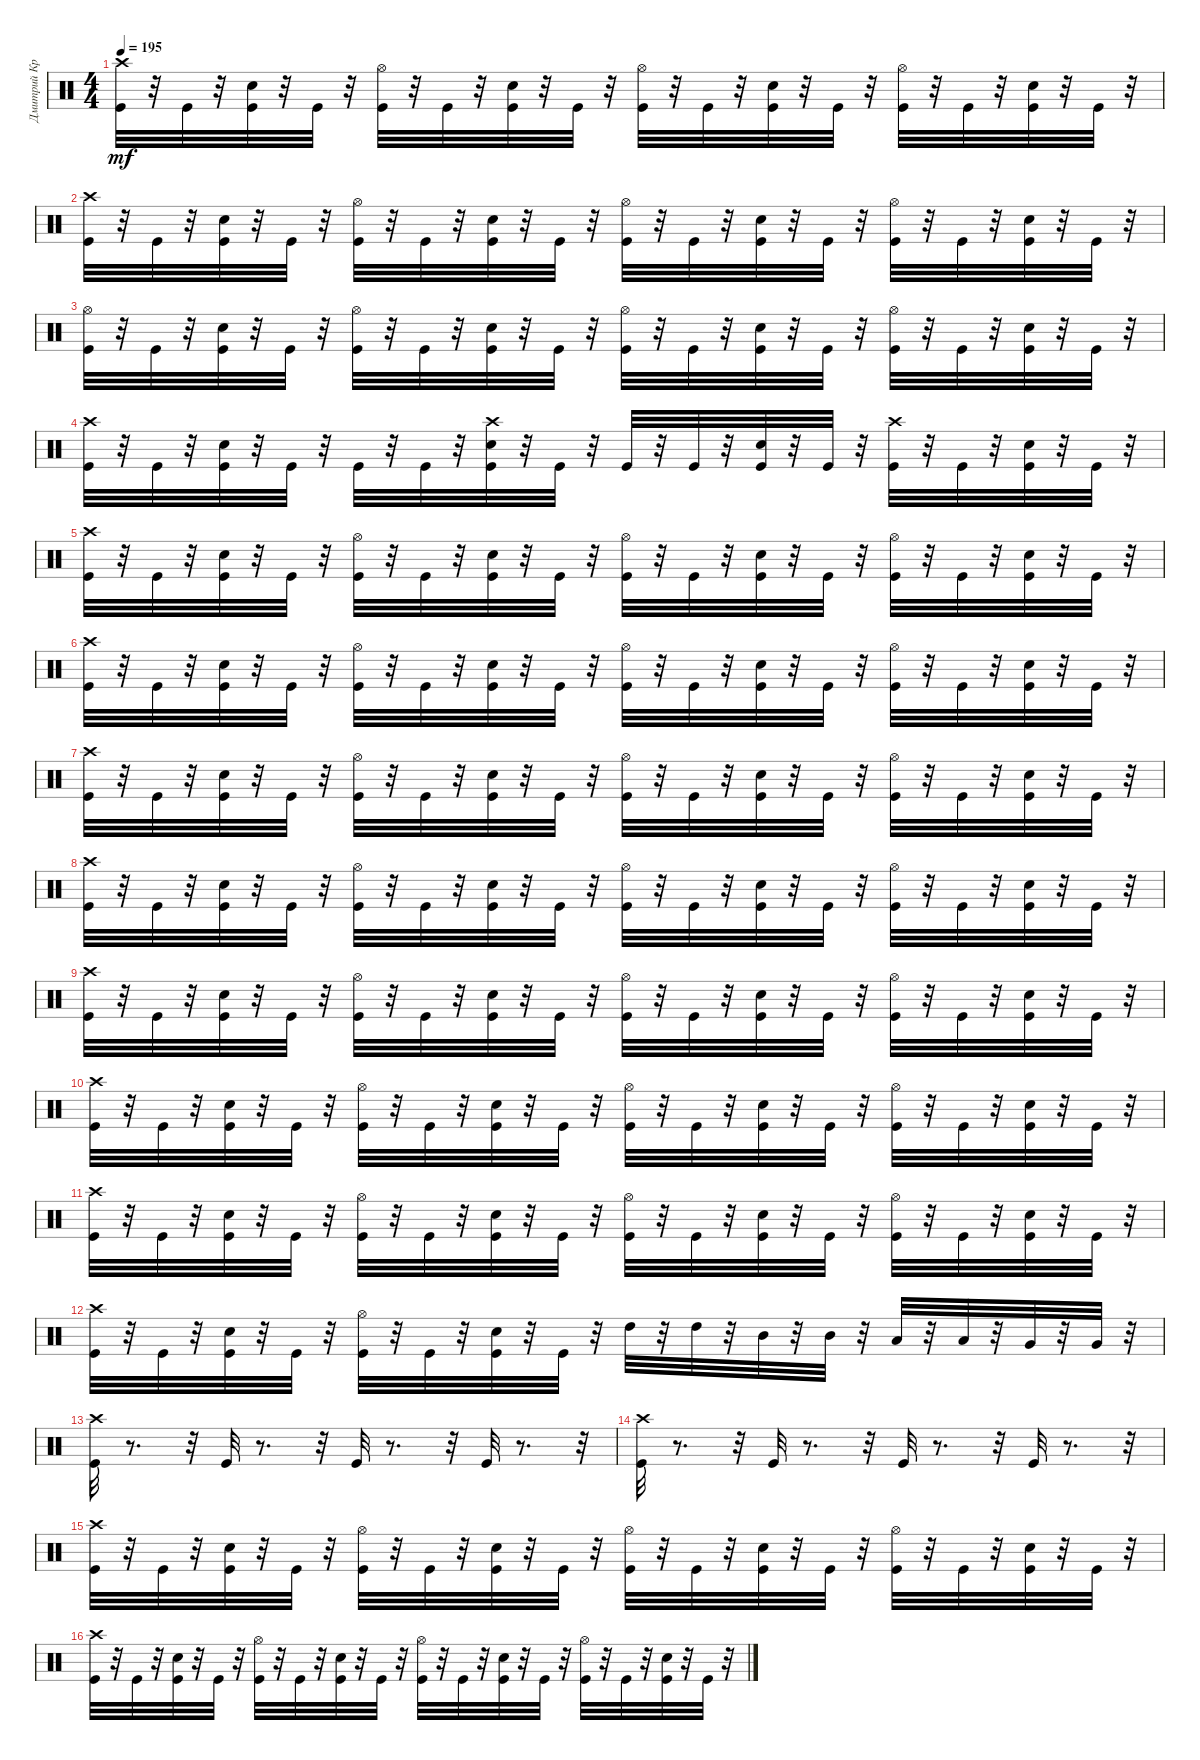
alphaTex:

\track ("Дмитрий Кривенков" "Дмитрий Кр") {instrument percussion}
\staff {score}
\articulation defaults
\ts (4 4)
\tempo 195
\clef neutral
\ks c
("Crash high (hit)" "Kick (hit)").32{dy mf} r.32 "Kick (hit)".32 r.32 ("Electric Snare (hit)" "Kick (hit)").32 r.32 "Kick (hit)".32 r.32 ("Kick (hit)" "Hi-Hat (open)").32 r.32 "Kick (hit)".32 r.32 ("Electric Snare (hit)" "Kick (hit)").32 r.32 "Kick (hit)".32 r.32 ("Hi-Hat (open)" "Kick (hit)").32 r.32 "Kick (hit)".32 r.32 ("Electric Snare (hit)" "Kick (hit)").32 r.32 "Kick (hit)".32 r.32 ("Hi-Hat (open)" "Kick (hit)").32 r.32 "Kick (hit)".32 r.32 ("Electric Snare (hit)" "Kick (hit)").32 r.32 "Kick (hit)".32 r.32 |
("Crash high (hit)" "Kick (hit)").32 r.32 "Kick (hit)".32 r.32 ("Electric Snare (hit)" "Kick (hit)").32 r.32 "Kick (hit)".32 r.32 ("Kick (hit)" "Hi-Hat (open)").32 r.32 "Kick (hit)".32 r.32 ("Electric Snare (hit)" "Kick (hit)").32 r.32 "Kick (hit)".32 r.32 ("Hi-Hat (open)" "Kick (hit)").32 r.32 "Kick (hit)".32 r.32 ("Electric Snare (hit)" "Kick (hit)").32 r.32 "Kick (hit)".32 r.32 ("Hi-Hat (open)" "Kick (hit)").32 r.32 "Kick (hit)".32 r.32 ("Electric Snare (hit)" "Kick (hit)").32 r.32 "Kick (hit)".32 r.32 |
("Hi-Hat (open)" "Kick (hit)").32 r.32 "Kick (hit)".32 r.32 ("Electric Snare (hit)" "Kick (hit)").32 r.32 "Kick (hit)".32 r.32 ("Kick (hit)" "Hi-Hat (open)").32 r.32 "Kick (hit)".32 r.32 ("Electric Snare (hit)" "Kick (hit)").32 r.32 "Kick (hit)".32 r.32 ("Hi-Hat (open)" "Kick (hit)").32 r.32 "Kick (hit)".32 r.32 ("Electric Snare (hit)" "Kick (hit)").32 r.32 "Kick (hit)".32 r.32 ("Hi-Hat (open)" "Kick (hit)").32 r.32 "Kick (hit)".32 r.32 ("Electric Snare (hit)" "Kick (hit)").32 r.32 "Kick (hit)".32 r.32 |
("Crash high (hit)" "Kick (hit)").32 r.32 "Kick (hit)".32 r.32 ("Kick (hit)" "Electric Snare (hit)").32 r.32 "Kick (hit)".32 r.32 "Kick (hit)".32 r.32 "Kick (hit)".32 r.32 ("Crash high (hit)" "Electric Snare (hit)" "Kick (hit)").32 r.32 "Kick (hit)".32 r.32 "Kick (hit)".32 r.32 "Kick (hit)".32 r.32 ("Electric Snare (hit)" "Kick (hit)").32 r.32 "Kick (hit)".32 r.32 ("Crash high (hit)" "Kick (hit)").32 r.32 "Kick (hit)".32 r.32 ("Electric Snare (hit)" "Kick (hit)").32 r.32 "Kick (hit)".32 r.32 |
("Crash high (hit)" "Kick (hit)").32 r.32 "Kick (hit)".32 r.32 ("Electric Snare (hit)" "Kick (hit)").32 r.32 "Kick (hit)".32 r.32 ("Kick (hit)" "Hi-Hat (open)").32 r.32 "Kick (hit)".32 r.32 ("Electric Snare (hit)" "Kick (hit)").32 r.32 "Kick (hit)".32 r.32 ("Hi-Hat (open)" "Kick (hit)").32 r.32 "Kick (hit)".32 r.32 ("Electric Snare (hit)" "Kick (hit)").32 r.32 "Kick (hit)".32 r.32 ("Hi-Hat (open)" "Kick (hit)").32 r.32 "Kick (hit)".32 r.32 ("Electric Snare (hit)" "Kick (hit)").32 r.32 "Kick (hit)".32 r.32 |
("Crash high (hit)" "Kick (hit)").32 r.32 "Kick (hit)".32 r.32 ("Electric Snare (hit)" "Kick (hit)").32 r.32 "Kick (hit)".32 r.32 ("Kick (hit)" "Hi-Hat (open)").32 r.32 "Kick (hit)".32 r.32 ("Electric Snare (hit)" "Kick (hit)").32 r.32 "Kick (hit)".32 r.32 ("Hi-Hat (open)" "Kick (hit)").32 r.32 "Kick (hit)".32 r.32 ("Electric Snare (hit)" "Kick (hit)").32 r.32 "Kick (hit)".32 r.32 ("Hi-Hat (open)" "Kick (hit)").32 r.32 "Kick (hit)".32 r.32 ("Electric Snare (hit)" "Kick (hit)").32 r.32 "Kick (hit)".32 r.32 |
("Crash high (hit)" "Kick (hit)").32 r.32 "Kick (hit)".32 r.32 ("Electric Snare (hit)" "Kick (hit)").32 r.32 "Kick (hit)".32 r.32 ("Kick (hit)" "Hi-Hat (open)").32 r.32 "Kick (hit)".32 r.32 ("Electric Snare (hit)" "Kick (hit)").32 r.32 "Kick (hit)".32 r.32 ("Hi-Hat (open)" "Kick (hit)").32 r.32 "Kick (hit)".32 r.32 ("Electric Snare (hit)" "Kick (hit)").32 r.32 "Kick (hit)".32 r.32 ("Hi-Hat (open)" "Kick (hit)").32 r.32 "Kick (hit)".32 r.32 ("Electric Snare (hit)" "Kick (hit)").32 r.32 "Kick (hit)".32 r.32 |
("Crash high (hit)" "Kick (hit)").32 r.32 "Kick (hit)".32 r.32 ("Electric Snare (hit)" "Kick (hit)").32 r.32 "Kick (hit)".32 r.32 ("Kick (hit)" "Hi-Hat (open)").32 r.32 "Kick (hit)".32 r.32 ("Electric Snare (hit)" "Kick (hit)").32 r.32 "Kick (hit)".32 r.32 ("Hi-Hat (open)" "Kick (hit)").32 r.32 "Kick (hit)".32 r.32 ("Electric Snare (hit)" "Kick (hit)").32 r.32 "Kick (hit)".32 r.32 ("Hi-Hat (open)" "Kick (hit)").32 r.32 "Kick (hit)".32 r.32 ("Electric Snare (hit)" "Kick (hit)").32 r.32 "Kick (hit)".32 r.32 |
("Crash high (hit)" "Kick (hit)").32 r.32 "Kick (hit)".32 r.32 ("Electric Snare (hit)" "Kick (hit)").32 r.32 "Kick (hit)".32 r.32 ("Kick (hit)" "Hi-Hat (open)").32 r.32 "Kick (hit)".32 r.32 ("Electric Snare (hit)" "Kick (hit)").32 r.32 "Kick (hit)".32 r.32 ("Hi-Hat (open)" "Kick (hit)").32 r.32 "Kick (hit)".32 r.32 ("Electric Snare (hit)" "Kick (hit)").32 r.32 "Kick (hit)".32 r.32 ("Hi-Hat (open)" "Kick (hit)").32 r.32 "Kick (hit)".32 r.32 ("Electric Snare (hit)" "Kick (hit)").32 r.32 "Kick (hit)".32 r.32 |
("Crash high (hit)" "Kick (hit)").32 r.32 "Kick (hit)".32 r.32 ("Electric Snare (hit)" "Kick (hit)").32 r.32 "Kick (hit)".32 r.32 ("Kick (hit)" "Hi-Hat (open)").32 r.32 "Kick (hit)".32 r.32 ("Electric Snare (hit)" "Kick (hit)").32 r.32 "Kick (hit)".32 r.32 ("Hi-Hat (open)" "Kick (hit)").32 r.32 "Kick (hit)".32 r.32 ("Electric Snare (hit)" "Kick (hit)").32 r.32 "Kick (hit)".32 r.32 ("Hi-Hat (open)" "Kick (hit)").32 r.32 "Kick (hit)".32 r.32 ("Electric Snare (hit)" "Kick (hit)").32 r.32 "Kick (hit)".32 r.32 |
("Crash high (hit)" "Kick (hit)").32 r.32 "Kick (hit)".32 r.32 ("Electric Snare (hit)" "Kick (hit)").32 r.32 "Kick (hit)".32 r.32 ("Kick (hit)" "Hi-Hat (open)").32 r.32 "Kick (hit)".32 r.32 ("Electric Snare (hit)" "Kick (hit)").32 r.32 "Kick (hit)".32 r.32 ("Hi-Hat (open)" "Kick (hit)").32 r.32 "Kick (hit)".32 r.32 ("Electric Snare (hit)" "Kick (hit)").32 r.32 "Kick (hit)".32 r.32 ("Hi-Hat (open)" "Kick (hit)").32 r.32 "Kick (hit)".32 r.32 ("Electric Snare (hit)" "Kick (hit)").32 r.32 "Kick (hit)".32 r.32 |
("Crash high (hit)" "Kick (hit)").32 r.32 "Kick (hit)".32 r.32 ("Electric Snare (hit)" "Kick (hit)").32 r.32 "Kick (hit)".32 r.32 ("Kick (hit)" "Hi-Hat (open)").32 r.32 "Kick (hit)".32 r.32 ("Electric Snare (hit)" "Kick (hit)").32 r.32 "Kick (hit)".32 r.32 "High Tom (hit)".32 r.32 "High Tom (hit)".32 r.32 "Mid Tom (hit)".32 r.32 "Mid Tom (hit)".32 r.32 "Low Tom (hit)".32 r.32 "Low Tom (hit)".32 r.32 "Very Low Tom (hit)".32 r.32 "Very Low Tom (hit)".32 r.32 |
("Kick (hit)" "Crash high (hit)").32 r.8{d} r.32 "Kick (hit)".32 r.8{d} r.32 "Kick (hit)".32 r.8{d} r.32 "Kick (hit)".32 r.8{d} r.32 |
("Kick (hit)" "Crash high (hit)").32 r.8{d} r.32 "Kick (hit)".32 r.8{d} r.32 "Kick (hit)".32 r.8{d} r.32 "Kick (hit)".32 r.8{d} r.32 |
("Crash high (hit)" "Kick (hit)").32 r.32 "Kick (hit)".32 r.32 ("Electric Snare (hit)" "Kick (hit)").32 r.32 "Kick (hit)".32 r.32 ("Hi-Hat (open)" "Kick (hit)").32 r.32 "Kick (hit)".32 r.32 ("Electric Snare (hit)" "Kick (hit)").32 r.32 "Kick (hit)".32 r.32 ("Hi-Hat (open)" "Kick (hit)").32 r.32 "Kick (hit)".32 r.32 ("Electric Snare (hit)" "Kick (hit)").32 r.32 "Kick (hit)".32 r.32 ("Hi-Hat (open)" "Kick (hit)").32 r.32 "Kick (hit)".32 r.32 ("Electric Snare (hit)" "Kick (hit)").32 r.32 "Kick (hit)".32 r.32 |
("Crash high (hit)" "Kick (hit)").32 r.32 "Kick (hit)".32 r.32 ("Electric Snare (hit)" "Kick (hit)").32 r.32 "Kick (hit)".32 r.32 ("Hi-Hat (open)" "Kick (hit)").32 r.32 "Kick (hit)".32 r.32 ("Electric Snare (hit)" "Kick (hit)").32 r.32 "Kick (hit)".32 r.32 ("Hi-Hat (open)" "Kick (hit)").32 r.32 "Kick (hit)".32 r.32 ("Electric Snare (hit)" "Kick (hit)").32 r.32 "Kick (hit)".32 r.32 ("Hi-Hat (open)" "Kick (hit)").32 r.32 "Kick (hit)".32 r.32 ("Electric Snare (hit)" "Kick (hit)").32 r.32 "Kick (hit)".32 r.32
